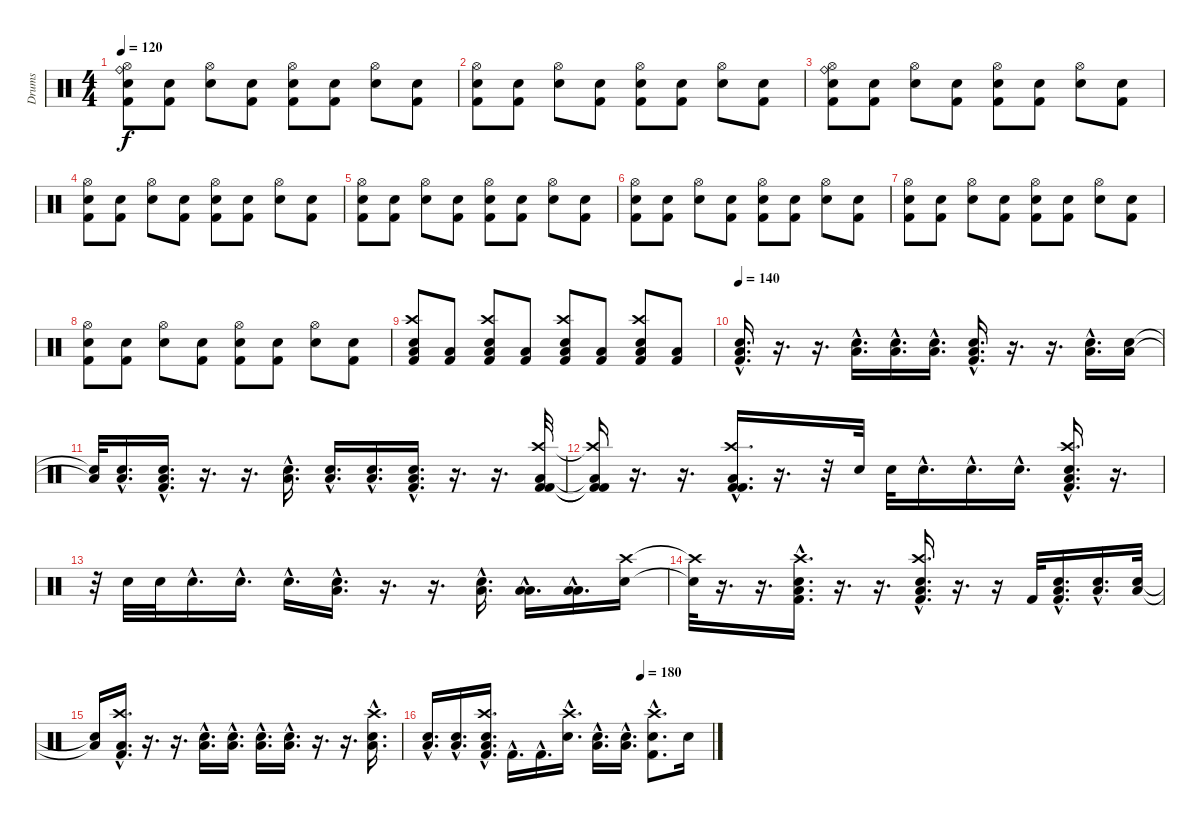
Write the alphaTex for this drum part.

\track ("Drums" "Drums") {instrument percussion}
\staff {score}
\articulation defaults
\ts (4 4)
\tempo 120
\clef neutral
\ks c
("Ride (bell)" "Hi-Hat (open)" "Electric Snare (hit)" "Kick (hit) 2").8{dy f} ("Electric Snare (hit)" "Kick (hit) 2").8 ("Hi-Hat (open)" "Electric Snare (hit)").8 ("Snare (hit) 2" "Kick (hit) 2").8 ("Hi-Hat (open)" "Electric Snare (hit)" "Kick (hit) 2").8 ("Electric Snare (hit)" "Kick (hit) 2").8 ("Hi-Hat (open)" "Electric Snare (hit)").8 ("Kick (hit) 2" "Snare (hit) 2").8 |
("Hi-Hat (open)" "Electric Snare (hit)" "Kick (hit) 2").8 ("Electric Snare (hit)" "Kick (hit) 2").8 ("Hi-Hat (open)" "Electric Snare (hit)").8 ("Snare (hit) 2" "Kick (hit) 2").8 ("Hi-Hat (open)" "Electric Snare (hit)" "Kick (hit) 2").8 ("Electric Snare (hit)" "Kick (hit) 2").8 ("Hi-Hat (open)" "Electric Snare (hit)").8 ("Kick (hit) 2" "Snare (hit) 2").8 |
("Ride (bell)" "Hi-Hat (open)" "Electric Snare (hit)" "Kick (hit) 2").8 ("Electric Snare (hit)" "Kick (hit) 2").8 ("Hi-Hat (open)" "Electric Snare (hit)").8 ("Snare (hit) 2" "Kick (hit) 2").8 ("Hi-Hat (open)" "Electric Snare (hit)" "Kick (hit) 2").8 ("Electric Snare (hit)" "Kick (hit) 2").8 ("Hi-Hat (open)" "Electric Snare (hit)").8 ("Kick (hit) 2" "Snare (hit) 2").8 |
("Hi-Hat (open)" "Electric Snare (hit)" "Kick (hit) 2").8 ("Electric Snare (hit)" "Kick (hit) 2").8 ("Hi-Hat (open)" "Electric Snare (hit)").8 ("Snare (hit) 2" "Kick (hit) 2").8 ("Hi-Hat (open)" "Electric Snare (hit)" "Kick (hit) 2").8 ("Electric Snare (hit)" "Kick (hit) 2").8 ("Hi-Hat (open)" "Electric Snare (hit)").8 ("Kick (hit) 2" "Snare (hit) 2").8 |
("Hi-Hat (open)" "Electric Snare (hit)" "Kick (hit) 2").8 ("Electric Snare (hit)" "Kick (hit) 2").8 ("Hi-Hat (open)" "Electric Snare (hit)").8 ("Snare (hit) 2" "Kick (hit) 2").8 ("Hi-Hat (open)" "Electric Snare (hit)" "Kick (hit) 2").8 ("Electric Snare (hit)" "Kick (hit) 2").8 ("Hi-Hat (open)" "Electric Snare (hit)").8 ("Kick (hit) 2" "Snare (hit) 2").8 |
("Hi-Hat (open)" "Electric Snare (hit)" "Kick (hit) 2").8 ("Electric Snare (hit)" "Kick (hit) 2").8 ("Hi-Hat (open)" "Electric Snare (hit)").8 ("Snare (hit) 2" "Kick (hit) 2").8 ("Hi-Hat (open)" "Electric Snare (hit)" "Kick (hit) 2").8 ("Electric Snare (hit)" "Kick (hit) 2").8 ("Hi-Hat (open)" "Electric Snare (hit)").8 ("Kick (hit) 2" "Snare (hit) 2").8 |
("Hi-Hat (open)" "Electric Snare (hit)" "Kick (hit) 2").8 ("Electric Snare (hit)" "Kick (hit) 2").8 ("Hi-Hat (open)" "Electric Snare (hit)").8 ("Snare (hit) 2" "Kick (hit) 2").8 ("Hi-Hat (open)" "Electric Snare (hit)" "Kick (hit) 2").8 ("Electric Snare (hit)" "Kick (hit) 2").8 ("Hi-Hat (open)" "Electric Snare (hit)").8 ("Kick (hit) 2" "Snare (hit) 2").8 |
("Hi-Hat (open)" "Electric Snare (hit)" "Kick (hit) 2").8 ("Electric Snare (hit)" "Kick (hit) 2").8 ("Hi-Hat (open)" "Electric Snare (hit)").8 ("Snare (hit) 2" "Kick (hit) 2").8 ("Hi-Hat (open)" "Electric Snare (hit)" "Kick (hit) 2").8 ("Electric Snare (hit)" "Kick (hit) 2").8 ("Hi-Hat (open)" "Electric Snare (hit)").8 ("Kick (hit) 2" "Snare (hit) 2").8 |
("Crash high (hit)" "Snare (hit) 2" "Low Floor Tom (hit)" "Kick (hit) 2").8 ("Low Floor Tom (hit)" "Kick (hit) 2").8 ("Crash high (hit)" "Snare (hit) 2" "Low Floor Tom (hit)" "Kick (hit) 2").8 ("Low Floor Tom (hit)" "Kick (hit) 2").8 ("Crash high (hit)" "Snare (hit) 2" "Low Floor Tom (hit)" "Kick (hit) 2").8 ("Low Floor Tom (hit)" "Kick (hit) 2").8 ("Crash high (hit)" "Snare (hit) 2" "Low Floor Tom (hit)" "Kick (hit) 2").8 ("Low Floor Tom (hit)" "Kick (hit) 2").8 |
\tempo 140
("Snare (hit) 2"{hac} "Low Floor Tom (hit)"{hac} "Kick (hit) 2"{hac}).16{d} r.16{d} r.16{d} ("Snare (hit) 2"{hac} "Low Floor Tom (hit)"{hac}).16{d} ("Snare (hit) 2"{hac} "Low Floor Tom (hit)"{hac}).16{d} ("Low Floor Tom (hit)"{hac} "Snare (hit) 2"{hac}).16{d} ("Snare (hit) 2"{hac} "Low Floor Tom (hit)"{hac} "Kick (hit) 2"{hac}).16{d} r.16{d} r.16{d} ("Snare (hit) 2"{hac} "Low Floor Tom (hit)"{hac}).16{d} ("Snare (hit) 2" "Low Floor Tom (hit)").16 |
("Snare (hit) 2"{t} "Low Floor Tom (hit)"{t}).32 ("Snare (hit) 2"{hac} "Low Floor Tom (hit)"{hac}).16{d} ("Kick (hit) 2"{hac} "Low Floor Tom (hit)"{hac} "Snare (hit) 2"{hac}).16{d} r.16{d} r.16{d} ("Snare (hit) 2"{hac} "Low Floor Tom (hit)"{hac}).16{d} ("Snare (hit) 2"{hac} "Low Floor Tom (hit)"{hac}).16{d} ("Snare (hit) 2"{hac} "Low Floor Tom (hit)"{hac}).16{d} ("Snare (hit) 2"{hac} "Low Floor Tom (hit)"{hac} "Kick (hit) 2"{hac}).16{d} r.16{d} r.16{d} ("Crash high (hit)" "Kick (hit) 2" "Low Floor Tom (hit)" "Kick (hit) 2").32 |
("Crash high (hit)"{t} "Kick (hit) 2"{t} "Low Floor Tom (hit)"{t} "Kick (hit) 2"{t}).16 r.16{d} r.16{d} ("Crash high (hit)"{hac} "Kick (hit) 2"{hac} "Low Floor Tom (hit)"{hac} "Kick (hit) 2"{hac}).16{d} r.16{d} r.32 "Snare (hit) 2".32 "Snare (hit) 2".32 "Snare (hit) 2"{hac}.16{d} "Snare (hit) 2"{hac}.16{d} "Snare (hit) 2"{hac}.16{d} ("Crash high (hit)"{hac} "Low Floor Tom (hit)"{hac} "Snare (hit) 2"{hac} "Kick (hit) 2"{hac}).16{d} r.16{d} |
r.32 "Snare (hit) 2".32 "Snare (hit) 2".32 "Snare (hit) 2"{hac}.16{d} "Snare (hit) 2"{hac}.16{d} "Snare (hit) 2"{hac}.16{d} ("Low Floor Tom (hit)"{hac} "Snare (hit) 2"{hac}).16{d} r.16{d} r.16{d} ("Low Floor Tom (hit)"{hac} "Snare (hit) 2"{hac}).16{d} ("Low Floor Tom (hit)"{hac} "Low Floor Tom (hit)"{hac}).16{d} ("Low Floor Tom (hit)"{hac} "Low Floor Tom (hit)"{hac}).16{d} ("Crash high (hit)" "Snare (hit) 2").16 |
("Crash high (hit)"{t} "Snare (hit) 2"{t}).32 r.16{d} r.16{d} ("Crash high (hit)"{hac} "Kick (hit) 2"{hac} "Low Floor Tom (hit)"{hac} "Snare (hit) 2"{hac}).16{d} r.16{d} r.16{d} ("Crash high (hit)"{hac} "Kick (hit) 2"{hac} "Low Floor Tom (hit)"{hac} "Snare (hit) 2"{hac}).16{d} r.16{d} r.16 "Kick (hit) 2".32 ("Snare (hit) 2"{hac} "Kick (hit) 2"{hac} "Low Floor Tom (hit)"{hac}).16{d} ("Snare (hit) 2"{hac} "Low Floor Tom (hit)"{hac}).16{d} ("Snare (hit) 2" "Low Floor Tom (hit)").32 |
("Snare (hit) 2"{t} "Low Floor Tom (hit)"{t}).16 ("Crash high (hit)"{hac} "Low Floor Tom (hit)"{hac} "Kick (hit) 2"{hac}).16{d} r.16{d} r.16{d} ("Low Floor Tom (hit)"{hac} "Snare (hit) 2"{hac}).16{d} ("Low Floor Tom (hit)"{hac} "Snare (hit) 2"{hac}).16{d} ("Low Floor Tom (hit)"{hac} "Snare (hit) 2"{hac}).16{d} ("Low Floor Tom (hit)"{hac} "Snare (hit) 2"{hac}).16{d} r.16{d} r.16{d} ("Crash high (hit)"{hac} "Low Floor Tom (hit)"{hac} "Snare (hit) 2"{hac}).16{d} |
\tempo (180 0.75)
("Low Floor Tom (hit)"{hac} "Snare (hit) 2"{hac}).16{d} ("Low Floor Tom (hit)"{hac} "Snare (hit) 2"{hac}).16{d} ("Crash high (hit)"{hac} "Snare (hit) 2"{hac} "Low Floor Tom (hit)"{hac} "Kick (hit) 2"{hac}).16{d} "Kick (hit) 2"{hac}.16{d} "Kick (hit) 2"{hac}.16{d} ("Crash high (hit)"{hac} "Snare (hit) 2"{hac}).16{d} ("Snare (hit) 2"{hac} "Low Floor Tom (hit)"{hac}).16{d} ("Snare (hit) 2"{hac} "Low Floor Tom (hit)"{hac}).16{d} ("Crash high (hit)"{hac} "Snare (hit) 2"{hac} "Kick (hit) 2"{hac}).8{d} "Snare (hit) 2".16
